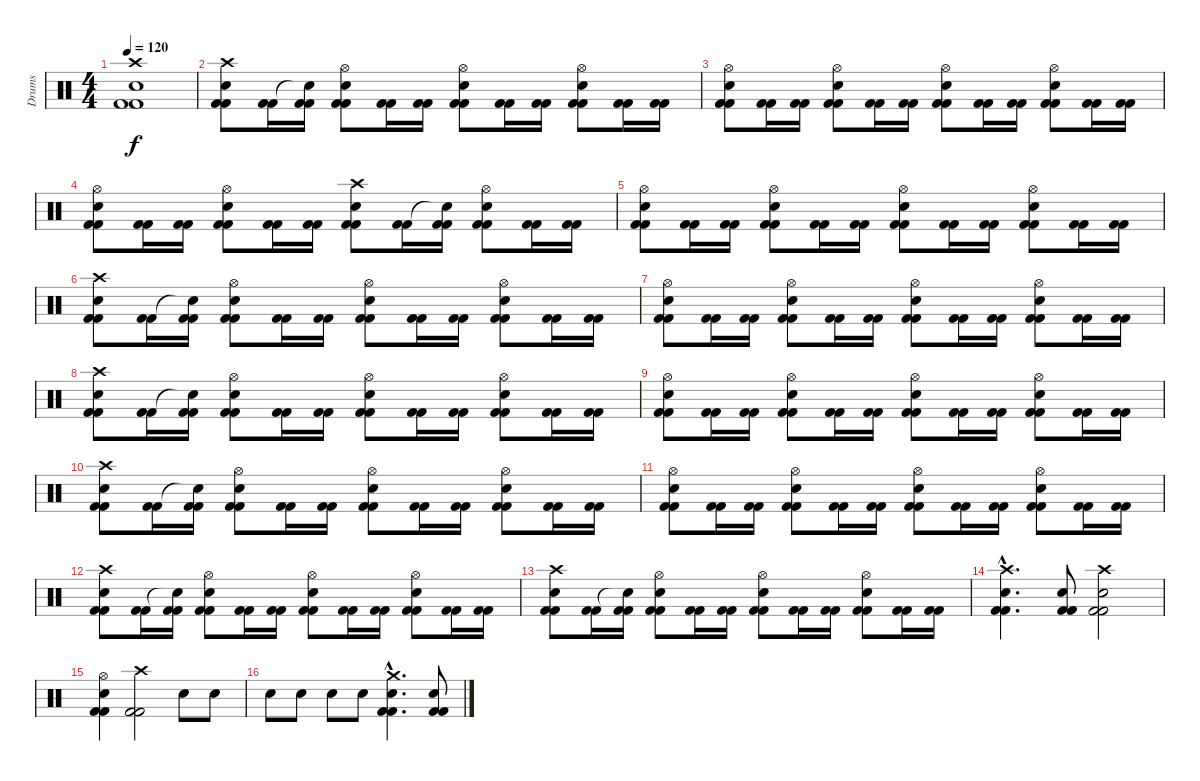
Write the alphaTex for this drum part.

\track ("Drums" "Drums") {instrument percussion}
\staff {score}
\articulation defaults
\ts (4 4)
\tempo 120
\clef neutral
\ks c
("Crash high (hit)" "Snare (hit) 2" "Kick (hit) 2" "Kick (hit) 2").1{dy f} |
("Crash high (hit)" "Snare (hit) 2" "Kick (hit) 2" "Kick (hit) 2").8 ("Kick (hit) 2" "Kick (hit) 2").16 ("Snare (hit)"{t} "Kick (hit) 2" "Kick (hit) 2").16 ("Hi-Hat (open)" "Snare (hit) 2" "Kick (hit) 2" "Kick (hit) 2").8 ("Kick (hit) 2" "Kick (hit) 2").16 ("Kick (hit) 2" "Kick (hit) 2").16 ("Hi-Hat (open)" "Snare (hit) 2" "Kick (hit) 2" "Kick (hit) 2").8 ("Kick (hit) 2" "Kick (hit) 2").16 ("Kick (hit) 2" "Kick (hit) 2").16 ("Hi-Hat (open)" "Snare (hit) 2" "Kick (hit) 2" "Kick (hit) 2").8 ("Kick (hit) 2" "Kick (hit) 2").16 ("Kick (hit) 2" "Kick (hit) 2").16 |
("Hi-Hat (open)" "Snare (hit) 2" "Kick (hit) 2" "Kick (hit) 2").8 ("Kick (hit) 2" "Kick (hit) 2").16 ("Kick (hit) 2" "Kick (hit) 2").16 ("Hi-Hat (open)" "Snare (hit) 2" "Kick (hit) 2" "Kick (hit) 2").8 ("Kick (hit) 2" "Kick (hit) 2").16 ("Kick (hit) 2" "Kick (hit) 2").16 ("Hi-Hat (open)" "Snare (hit) 2" "Kick (hit) 2" "Kick (hit) 2").8 ("Kick (hit) 2" "Kick (hit) 2").16 ("Kick (hit) 2" "Kick (hit) 2").16 ("Hi-Hat (open)" "Snare (hit) 2" "Kick (hit) 2" "Kick (hit) 2").8 ("Kick (hit) 2" "Kick (hit) 2").16 ("Kick (hit) 2" "Kick (hit) 2").16 |
("Hi-Hat (open)" "Snare (hit) 2" "Kick (hit) 2" "Kick (hit) 2").8 ("Kick (hit) 2" "Kick (hit) 2").16 ("Kick (hit) 2" "Kick (hit) 2").16 ("Hi-Hat (open)" "Snare (hit) 2" "Kick (hit) 2" "Kick (hit) 2").8 ("Kick (hit) 2" "Kick (hit) 2").16 ("Kick (hit) 2" "Kick (hit) 2").16 ("Crash high (hit)" "Snare (hit) 2" "Kick (hit) 2" "Kick (hit) 2").8 ("Kick (hit) 2" "Kick (hit) 2").16 ("Snare (hit)"{t} "Kick (hit) 2" "Kick (hit) 2").16 ("Hi-Hat (open)" "Snare (hit) 2" "Kick (hit) 2" "Kick (hit) 2").8 ("Kick (hit) 2" "Kick (hit) 2").16 ("Kick (hit) 2" "Kick (hit) 2").16 |
("Hi-Hat (open)" "Snare (hit) 2" "Kick (hit) 2" "Kick (hit) 2").8 ("Kick (hit) 2" "Kick (hit) 2").16 ("Kick (hit) 2" "Kick (hit) 2").16 ("Hi-Hat (open)" "Snare (hit) 2" "Kick (hit) 2" "Kick (hit) 2").8 ("Kick (hit) 2" "Kick (hit) 2").16 ("Kick (hit) 2" "Kick (hit) 2").16 ("Hi-Hat (open)" "Snare (hit) 2" "Kick (hit) 2" "Kick (hit) 2").8 ("Kick (hit) 2" "Kick (hit) 2").16 ("Kick (hit) 2" "Kick (hit) 2").16 ("Hi-Hat (open)" "Snare (hit) 2" "Kick (hit) 2" "Kick (hit) 2").8 ("Kick (hit) 2" "Kick (hit) 2").16 ("Kick (hit) 2" "Kick (hit) 2").16 |
("Crash high (hit)" "Snare (hit) 2" "Kick (hit) 2" "Kick (hit) 2").8 ("Kick (hit) 2" "Kick (hit) 2").16 ("Snare (hit)"{t} "Kick (hit) 2" "Kick (hit) 2").16 ("Hi-Hat (open)" "Snare (hit) 2" "Kick (hit) 2" "Kick (hit) 2").8 ("Kick (hit) 2" "Kick (hit) 2").16 ("Kick (hit) 2" "Kick (hit) 2").16 ("Hi-Hat (open)" "Snare (hit) 2" "Kick (hit) 2" "Kick (hit) 2").8 ("Kick (hit) 2" "Kick (hit) 2").16 ("Kick (hit) 2" "Kick (hit) 2").16 ("Hi-Hat (open)" "Snare (hit) 2" "Kick (hit) 2" "Kick (hit) 2").8 ("Kick (hit) 2" "Kick (hit) 2").16 ("Kick (hit) 2" "Kick (hit) 2").16 |
("Hi-Hat (open)" "Snare (hit) 2" "Kick (hit) 2" "Kick (hit) 2").8 ("Kick (hit) 2" "Kick (hit) 2").16 ("Kick (hit) 2" "Kick (hit) 2").16 ("Hi-Hat (open)" "Snare (hit) 2" "Kick (hit) 2" "Kick (hit) 2").8 ("Kick (hit) 2" "Kick (hit) 2").16 ("Kick (hit) 2" "Kick (hit) 2").16 ("Hi-Hat (open)" "Snare (hit) 2" "Kick (hit) 2" "Kick (hit) 2").8 ("Kick (hit) 2" "Kick (hit) 2").16 ("Kick (hit) 2" "Kick (hit) 2").16 ("Hi-Hat (open)" "Snare (hit) 2" "Kick (hit) 2" "Kick (hit) 2").8 ("Kick (hit) 2" "Kick (hit) 2").16 ("Kick (hit) 2" "Kick (hit) 2").16 |
("Crash high (hit)" "Snare (hit) 2" "Kick (hit) 2" "Kick (hit) 2").8 ("Kick (hit) 2" "Kick (hit) 2").16 ("Snare (hit)"{t} "Kick (hit) 2" "Kick (hit) 2").16 ("Hi-Hat (open)" "Snare (hit) 2" "Kick (hit) 2" "Kick (hit) 2").8 ("Kick (hit) 2" "Kick (hit) 2").16 ("Kick (hit) 2" "Kick (hit) 2").16 ("Hi-Hat (open)" "Snare (hit) 2" "Kick (hit) 2" "Kick (hit) 2").8 ("Kick (hit) 2" "Kick (hit) 2").16 ("Kick (hit) 2" "Kick (hit) 2").16 ("Hi-Hat (open)" "Snare (hit) 2" "Kick (hit) 2" "Kick (hit) 2").8 ("Kick (hit) 2" "Kick (hit) 2").16 ("Kick (hit) 2" "Kick (hit) 2").16 |
("Hi-Hat (open)" "Snare (hit) 2" "Kick (hit) 2" "Kick (hit) 2").8 ("Kick (hit) 2" "Kick (hit) 2").16 ("Kick (hit) 2" "Kick (hit) 2").16 ("Hi-Hat (open)" "Snare (hit) 2" "Kick (hit) 2" "Kick (hit) 2").8 ("Kick (hit) 2" "Kick (hit) 2").16 ("Kick (hit) 2" "Kick (hit) 2").16 ("Hi-Hat (open)" "Snare (hit) 2" "Kick (hit) 2" "Kick (hit) 2").8 ("Kick (hit) 2" "Kick (hit) 2").16 ("Kick (hit) 2" "Kick (hit) 2").16 ("Hi-Hat (open)" "Snare (hit) 2" "Kick (hit) 2" "Kick (hit) 2").8 ("Kick (hit) 2" "Kick (hit) 2").16 ("Kick (hit) 2" "Kick (hit) 2").16 |
("Crash high (hit)" "Snare (hit) 2" "Kick (hit) 2" "Kick (hit) 2").8 ("Kick (hit) 2" "Kick (hit) 2").16 ("Snare (hit)"{t} "Kick (hit) 2" "Kick (hit) 2").16 ("Hi-Hat (open)" "Snare (hit) 2" "Kick (hit) 2" "Kick (hit) 2").8 ("Kick (hit) 2" "Kick (hit) 2").16 ("Kick (hit) 2" "Kick (hit) 2").16 ("Hi-Hat (open)" "Snare (hit) 2" "Kick (hit) 2" "Kick (hit) 2").8 ("Kick (hit) 2" "Kick (hit) 2").16 ("Kick (hit) 2" "Kick (hit) 2").16 ("Hi-Hat (open)" "Snare (hit) 2" "Kick (hit) 2" "Kick (hit) 2").8 ("Kick (hit) 2" "Kick (hit) 2").16 ("Kick (hit) 2" "Kick (hit) 2").16 |
("Hi-Hat (open)" "Snare (hit) 2" "Kick (hit) 2" "Kick (hit) 2").8 ("Kick (hit) 2" "Kick (hit) 2").16 ("Kick (hit) 2" "Kick (hit) 2").16 ("Hi-Hat (open)" "Snare (hit) 2" "Kick (hit) 2" "Kick (hit) 2").8 ("Kick (hit) 2" "Kick (hit) 2").16 ("Kick (hit) 2" "Kick (hit) 2").16 ("Hi-Hat (open)" "Snare (hit) 2" "Kick (hit) 2" "Kick (hit) 2").8 ("Kick (hit) 2" "Kick (hit) 2").16 ("Kick (hit) 2" "Kick (hit) 2").16 ("Hi-Hat (open)" "Snare (hit) 2" "Kick (hit) 2" "Kick (hit) 2").8 ("Kick (hit) 2" "Kick (hit) 2").16 ("Kick (hit) 2" "Kick (hit) 2").16 |
("Crash high (hit)" "Snare (hit) 2" "Kick (hit) 2" "Kick (hit) 2").8 ("Kick (hit) 2" "Kick (hit) 2").16 ("Snare (hit)"{t} "Kick (hit) 2" "Kick (hit) 2").16 ("Hi-Hat (open)" "Snare (hit) 2" "Kick (hit) 2" "Kick (hit) 2").8 ("Kick (hit) 2" "Kick (hit) 2").16 ("Kick (hit) 2" "Kick (hit) 2").16 ("Hi-Hat (open)" "Snare (hit) 2" "Kick (hit) 2" "Kick (hit) 2").8 ("Kick (hit) 2" "Kick (hit) 2").16 ("Kick (hit) 2" "Kick (hit) 2").16 ("Hi-Hat (open)" "Snare (hit) 2" "Kick (hit) 2" "Kick (hit) 2").8 ("Kick (hit) 2" "Kick (hit) 2").16 ("Kick (hit) 2" "Kick (hit) 2").16 |
("Crash high (hit)" "Snare (hit) 2" "Kick (hit) 2" "Kick (hit) 2").8 ("Kick (hit) 2" "Kick (hit) 2").16 ("Snare (hit)"{t} "Kick (hit) 2" "Kick (hit) 2").16 ("Hi-Hat (open)" "Snare (hit) 2" "Kick (hit) 2" "Kick (hit) 2").8 ("Kick (hit) 2" "Kick (hit) 2").16 ("Kick (hit) 2" "Kick (hit) 2").16 ("Hi-Hat (open)" "Snare (hit) 2" "Kick (hit) 2" "Kick (hit) 2").8 ("Kick (hit) 2" "Kick (hit) 2").16 ("Kick (hit) 2" "Kick (hit) 2").16 ("Hi-Hat (open)" "Snare (hit) 2" "Kick (hit) 2" "Kick (hit) 2").8 ("Kick (hit) 2" "Kick (hit) 2").16 ("Kick (hit) 2" "Kick (hit) 2").16 |
("Crash high (hit)"{hac} "Snare (hit) 2"{hac} "Kick (hit) 2"{hac} "Kick (hit) 2"{hac}).4{d} ("Electric Snare (hit)" "Kick (hit) 2" "Kick (hit) 2").8 ("Crash high (hit)" "Snare (hit) 2" "Kick (hit) 2" "Kick (hit) 2").2 |
("Hi-Hat (open)" "Snare (hit) 2" "Kick (hit) 2" "Kick (hit) 2").4 ("Crash high (hit)" "Kick (hit) 2" "Kick (hit) 2").2 "Snare (hit) 2".8 "Snare (hit) 2".8 |
"Snare (hit) 2".8 "Snare (hit) 2".8 "Snare (hit) 2".8 "Snare (hit) 2".8 ("Crash medium (hit)"{hac} "Snare (hit) 2"{hac} "Kick (hit) 2"{hac} "Kick (hit) 2"{hac}).4{d} ("Electric Snare (hit)" "Kick (hit) 2" "Kick (hit) 2").8
